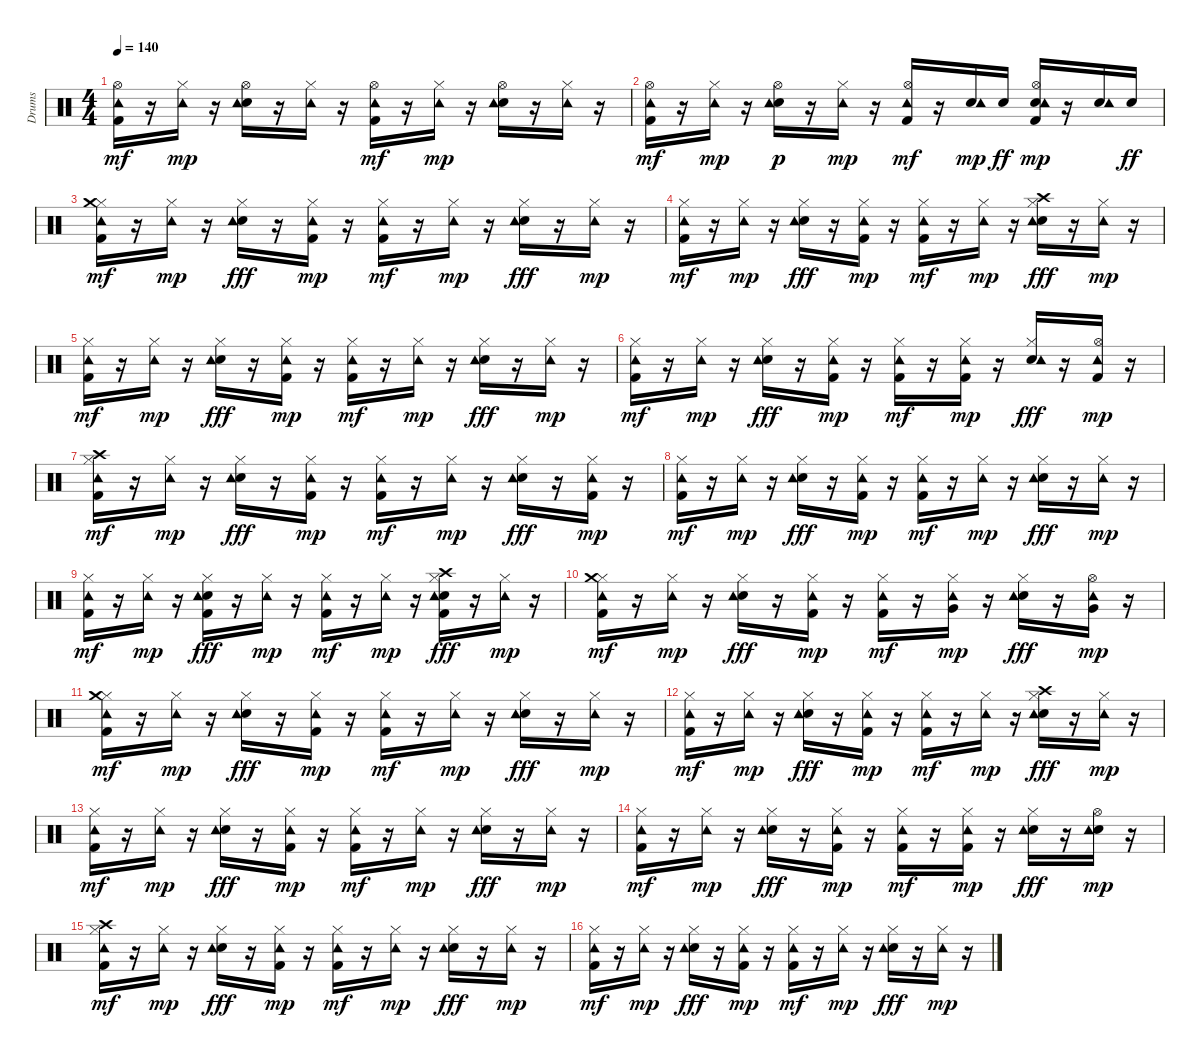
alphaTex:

\track ("Drums" "Drums") {instrument percussion}
\staff {score}
\articulation defaults
\ts (4 4)
\tempo 140
\clef neutral
\ks c
("Kick (hit) 2" "Hi-Hat (open)" "Tambourine (hit)").16{dy mf} r.16 ("Hi-Hat (closed)" "Tambourine (hit)").16{dy mp} r.16 ("Electric Snare (hit)" "Hi-Hat (open)" "Tambourine (hit)").16 r.16 ("Hi-Hat (closed)" "Tambourine (hit)").16 r.16 ("Kick (hit) 2" "Hi-Hat (open)" "Tambourine (hit)").16{dy mf} r.16 ("Hi-Hat (closed)" "Tambourine (hit)").16{dy mp} r.16 ("Electric Snare (hit)" "Hi-Hat (open)" "Tambourine (hit)").16 r.16 ("Hi-Hat (closed)" "Tambourine (hit)").16 r.16 |
("Kick (hit) 2" "Hi-Hat (open)" "Tambourine (hit)").16{dy mf} r.16 ("Hi-Hat (closed)" "Tambourine (hit)").16{dy mp} r.16 ("Electric Snare (hit)" "Hi-Hat (open)" "Tambourine (hit)").16{dy p} r.16 ("Hi-Hat (closed)" "Tambourine (hit)").16{dy mp} r.16 ("Kick (hit) 2" "Hi-Hat (open)" "Tambourine (hit)").16{dy mf} r.16 ("Electric Snare (hit)" "Tambourine (hit)").16{dy mp} "Electric Snare (hit)".16{dy ff} ("Kick (hit) 2" "Electric Snare (hit)" "Hi-Hat (open)" "Tambourine (hit)").16{dy mp} r.16 ("Electric Snare (hit)" "Tambourine (hit)").16 "Electric Snare (hit)".16{dy ff} |
("Kick (hit) 2" "Hi-Hat (closed)" "Crash medium (hit)" "Tambourine (hit)").16{dy mf} r.16 ("Hi-Hat (closed)" "Tambourine (hit)").16{dy mp} r.16 ("Electric Snare (hit)" "Hi-Hat (closed)" "Tambourine (hit)").16{dy fff} r.16 ("Kick (hit) 2" "Hi-Hat (closed)" "Tambourine (hit)").16{dy mp} r.16 ("Kick (hit) 2" "Hi-Hat (closed)" "Tambourine (hit)").16{dy mf} r.16 ("Hi-Hat (closed)" "Tambourine (hit)").16{dy mp} r.16 ("Electric Snare (hit)" "Hi-Hat (closed)" "Tambourine (hit)").16{dy fff} r.16 ("Hi-Hat (closed)" "Tambourine (hit)").16{dy mp} r.16 |
("Kick (hit) 2" "Hi-Hat (closed)" "Tambourine (hit)").16{dy mf} r.16 ("Hi-Hat (closed)" "Tambourine (hit)").16{dy mp} r.16 ("Electric Snare (hit)" "Hi-Hat (closed)" "Tambourine (hit)").16{dy fff} r.16 ("Kick (hit) 2" "Hi-Hat (closed)" "Tambourine (hit)").16{dy mp} r.16 ("Kick (hit) 2" "Hi-Hat (closed)" "Tambourine (hit)").16{dy mf} r.16 ("Hi-Hat (closed)" "Tambourine (hit)").16{dy mp} r.16 ("Electric Snare (hit)" "Hi-Hat (closed)" "Crash high (hit)" "Tambourine (hit)").16{dy fff} r.16 ("Hi-Hat (closed)" "Tambourine (hit)").16{dy mp} r.16 |
("Kick (hit) 2" "Hi-Hat (closed)" "Tambourine (hit)").16{dy mf} r.16 ("Hi-Hat (closed)" "Tambourine (hit)").16{dy mp} r.16 ("Electric Snare (hit)" "Hi-Hat (closed)" "Tambourine (hit)").16{dy fff} r.16 ("Kick (hit) 2" "Hi-Hat (closed)" "Tambourine (hit)").16{dy mp} r.16 ("Kick (hit) 2" "Hi-Hat (closed)" "Tambourine (hit)").16{dy mf} r.16 ("Hi-Hat (closed)" "Tambourine (hit)").16{dy mp} r.16 ("Electric Snare (hit)" "Hi-Hat (closed)" "Tambourine (hit)").16{dy fff} r.16 ("Hi-Hat (closed)" "Tambourine (hit)").16{dy mp} r.16 |
("Kick (hit) 2" "Hi-Hat (closed)" "Tambourine (hit)").16{dy mf} r.16 ("Hi-Hat (closed)" "Tambourine (hit)").16{dy mp} r.16 ("Electric Snare (hit)" "Hi-Hat (closed)" "Tambourine (hit)").16{dy fff} r.16 ("Kick (hit) 2" "Hi-Hat (closed)" "Tambourine (hit)").16{dy mp} r.16 ("Kick (hit) 2" "Hi-Hat (closed)" "Tambourine (hit)").16{dy mf} r.16 ("Kick (hit) 2" "Hi-Hat (closed)" "Tambourine (hit)").16{dy mp} r.16 ("Electric Snare (hit)" "Hi-Hat (closed)" "Tambourine (hit)").16{dy fff} r.16 ("Kick (hit) 2" "Hi-Hat (open)" "Tambourine (hit)").16{dy mp} r.16 |
("Kick (hit) 2" "Hi-Hat (closed)" "Crash high (hit)" "Tambourine (hit)").16{dy mf} r.16 ("Hi-Hat (closed)" "Tambourine (hit)").16{dy mp} r.16 ("Electric Snare (hit)" "Hi-Hat (closed)" "Tambourine (hit)").16{dy fff} r.16 ("Kick (hit) 2" "Hi-Hat (closed)" "Tambourine (hit)").16{dy mp} r.16 ("Kick (hit) 2" "Hi-Hat (closed)" "Tambourine (hit)").16{dy mf} r.16 ("Hi-Hat (closed)" "Tambourine (hit)").16{dy mp} r.16 ("Electric Snare (hit)" "Hi-Hat (closed)" "Tambourine (hit)").16{dy fff} r.16 ("Kick (hit) 2" "Hi-Hat (closed)" "Tambourine (hit)").16{dy mp} r.16 |
("Kick (hit) 2" "Hi-Hat (closed)" "Tambourine (hit)").16{dy mf} r.16 ("Hi-Hat (closed)" "Tambourine (hit)").16{dy mp} r.16 ("Electric Snare (hit)" "Hi-Hat (closed)" "Tambourine (hit)").16{dy fff} r.16 ("Kick (hit) 2" "Hi-Hat (closed)" "Tambourine (hit)").16{dy mp} r.16 ("Kick (hit) 2" "Hi-Hat (closed)" "Tambourine (hit)").16{dy mf} r.16 ("Hi-Hat (closed)" "Tambourine (hit)").16{dy mp} r.16 ("Electric Snare (hit)" "Hi-Hat (closed)" "Tambourine (hit)").16{dy fff} r.16 ("Hi-Hat (closed)" "Tambourine (hit)").16{dy mp} r.16 |
("Kick (hit) 2" "Hi-Hat (closed)" "Tambourine (hit)").16{dy mf} r.16 ("Hi-Hat (closed)" "Tambourine (hit)").16{dy mp} r.16 ("Kick (hit) 2" "Electric Snare (hit)" "Hi-Hat (closed)" "Tambourine (hit)").16{dy fff} r.16 ("Hi-Hat (closed)" "Tambourine (hit)").16{dy mp} r.16 ("Kick (hit) 2" "Hi-Hat (closed)" "Tambourine (hit)").16{dy mf} r.16 ("Hi-Hat (closed)" "Tambourine (hit)").16{dy mp} r.16 ("Kick (hit) 2" "Electric Snare (hit)" "Hi-Hat (closed)" "Crash high (hit)" "Tambourine (hit)").16{dy fff} r.16 ("Hi-Hat (closed)" "Tambourine (hit)").16{dy mp} r.16 |
("Kick (hit) 2" "Hi-Hat (closed)" "Crash medium (hit)" "Tambourine (hit)").16{dy mf} r.16 ("Hi-Hat (closed)" "Tambourine (hit)").16{dy mp} r.16 ("Electric Snare (hit)" "Hi-Hat (closed)" "Tambourine (hit)").16{dy fff} r.16 ("Kick (hit) 2" "Hi-Hat (closed)" "Tambourine (hit)").16{dy mp} r.16 ("Kick (hit) 2" "Hi-Hat (closed)" "Tambourine (hit)").16{dy mf} r.16 ("Very Low Tom (hit)" "Hi-Hat (closed)" "Tambourine (hit)").16{dy mp} r.16 ("Electric Snare (hit)" "Hi-Hat (closed)" "Tambourine (hit)").16{dy fff} r.16 ("Very Low Tom (hit)" "Hi-Hat (open)" "Tambourine (hit)").16{dy mp} r.16 |
("Kick (hit) 2" "Hi-Hat (closed)" "Crash medium (hit)" "Tambourine (hit)").16{dy mf} r.16 ("Hi-Hat (closed)" "Tambourine (hit)").16{dy mp} r.16 ("Electric Snare (hit)" "Hi-Hat (closed)" "Tambourine (hit)").16{dy fff} r.16 ("Kick (hit) 2" "Hi-Hat (closed)" "Tambourine (hit)").16{dy mp} r.16 ("Kick (hit) 2" "Hi-Hat (closed)" "Tambourine (hit)").16{dy mf} r.16 ("Hi-Hat (closed)" "Tambourine (hit)").16{dy mp} r.16 ("Electric Snare (hit)" "Hi-Hat (closed)" "Tambourine (hit)").16{dy fff} r.16 ("Hi-Hat (closed)" "Tambourine (hit)").16{dy mp} r.16 |
("Kick (hit) 2" "Hi-Hat (closed)" "Tambourine (hit)").16{dy mf} r.16 ("Hi-Hat (closed)" "Tambourine (hit)").16{dy mp} r.16 ("Electric Snare (hit)" "Hi-Hat (closed)" "Tambourine (hit)").16{dy fff} r.16 ("Kick (hit) 2" "Hi-Hat (closed)" "Tambourine (hit)").16{dy mp} r.16 ("Kick (hit) 2" "Hi-Hat (closed)" "Tambourine (hit)").16{dy mf} r.16 ("Hi-Hat (closed)" "Tambourine (hit)").16{dy mp} r.16 ("Electric Snare (hit)" "Hi-Hat (closed)" "Crash high (hit)" "Tambourine (hit)").16{dy fff} r.16 ("Hi-Hat (closed)" "Tambourine (hit)").16{dy mp} r.16 |
("Kick (hit) 2" "Hi-Hat (closed)" "Tambourine (hit)").16{dy mf} r.16 ("Hi-Hat (closed)" "Tambourine (hit)").16{dy mp} r.16 ("Electric Snare (hit)" "Hi-Hat (closed)" "Tambourine (hit)").16{dy fff} r.16 ("Kick (hit) 2" "Hi-Hat (closed)" "Tambourine (hit)").16{dy mp} r.16 ("Kick (hit) 2" "Hi-Hat (closed)" "Tambourine (hit)").16{dy mf} r.16 ("Hi-Hat (closed)" "Tambourine (hit)").16{dy mp} r.16 ("Electric Snare (hit)" "Hi-Hat (closed)" "Tambourine (hit)").16{dy fff} r.16 ("Hi-Hat (closed)" "Tambourine (hit)").16{dy mp} r.16 |
("Kick (hit) 2" "Hi-Hat (closed)" "Tambourine (hit)").16{dy mf} r.16 ("Hi-Hat (closed)" "Tambourine (hit)").16{dy mp} r.16 ("Electric Snare (hit)" "Hi-Hat (closed)" "Tambourine (hit)").16{dy fff} r.16 ("Kick (hit) 2" "Hi-Hat (closed)" "Tambourine (hit)").16{dy mp} r.16 ("Kick (hit) 2" "Hi-Hat (closed)" "Tambourine (hit)").16{dy mf} r.16 ("Kick (hit) 2" "Hi-Hat (closed)" "Tambourine (hit)").16{dy mp} r.16 ("Electric Snare (hit)" "Hi-Hat (closed)" "Tambourine (hit)").16{dy fff} r.16 ("Electric Snare (hit)" "Hi-Hat (open)" "Tambourine (hit)").16{dy mp} r.16 |
("Kick (hit) 2" "Hi-Hat (closed)" "Crash high (hit)" "Tambourine (hit)").16{dy mf} r.16 ("Hi-Hat (closed)" "Tambourine (hit)").16{dy mp} r.16 ("Electric Snare (hit)" "Hi-Hat (closed)" "Tambourine (hit)").16{dy fff} r.16 ("Kick (hit) 2" "Hi-Hat (closed)" "Tambourine (hit)").16{dy mp} r.16 ("Kick (hit) 2" "Hi-Hat (closed)" "Tambourine (hit)").16{dy mf} r.16 ("Hi-Hat (closed)" "Tambourine (hit)").16{dy mp} r.16 ("Electric Snare (hit)" "Hi-Hat (closed)" "Tambourine (hit)").16{dy fff} r.16 ("Hi-Hat (closed)" "Tambourine (hit)").16{dy mp} r.16 |
("Kick (hit) 2" "Hi-Hat (closed)" "Tambourine (hit)").16{dy mf} r.16 ("Hi-Hat (closed)" "Tambourine (hit)").16{dy mp} r.16 ("Electric Snare (hit)" "Hi-Hat (closed)" "Tambourine (hit)").16{dy fff} r.16 ("Kick (hit) 2" "Hi-Hat (closed)" "Tambourine (hit)").16{dy mp} r.16 ("Kick (hit) 2" "Hi-Hat (closed)" "Tambourine (hit)").16{dy mf} r.16 ("Hi-Hat (closed)" "Tambourine (hit)").16{dy mp} r.16 ("Electric Snare (hit)" "Hi-Hat (closed)" "Tambourine (hit)").16{dy fff} r.16 ("Hi-Hat (closed)" "Tambourine (hit)").16{dy mp} r.16
